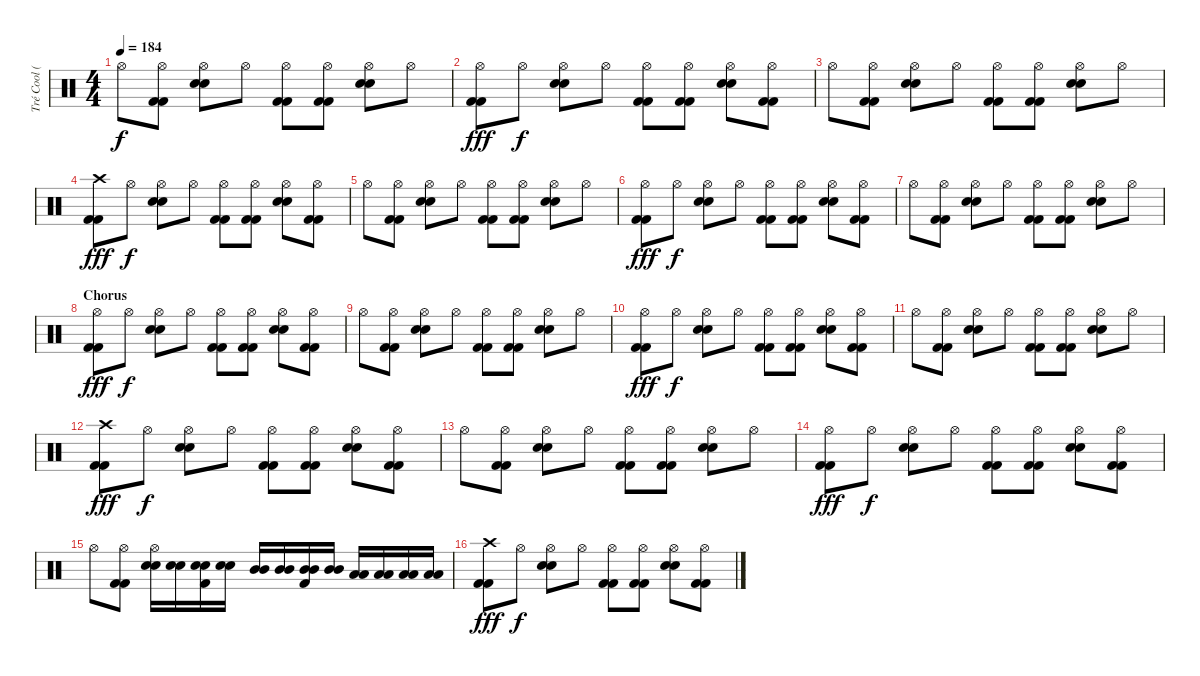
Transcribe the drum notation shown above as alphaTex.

\track ("Tré Cool (Drums)" "Tré Cool (") {instrument percussion}
\staff {score}
\articulation defaults
\ts (4 4)
\tempo 184
\clef neutral
\ks c "Hi-Hat (open)".8{dy f}
("Kick (hit) 2" "Kick (hit) 2" "Hi-Hat (open)").8 ("Electric Snare (hit)" "Electric Snare (hit)" "Hi-Hat (open)").8 "Hi-Hat (open)".8 ("Kick (hit) 2" "Kick (hit) 2" "Hi-Hat (open)").8 ("Kick (hit) 2" "Kick (hit) 2" "Hi-Hat (open)").8 ("Electric Snare (hit)" "Electric Snare (hit)" "Hi-Hat (open)").8 "Hi-Hat (open)".8 |
("Kick (hit) 2" "Kick (hit) 2" "Hi-Hat (open)").8{dy fff} "Hi-Hat (open)".8{dy f} ("Electric Snare (hit)" "Electric Snare (hit)" "Hi-Hat (open)").8 "Hi-Hat (open)".8 ("Kick (hit) 2" "Kick (hit) 2" "Hi-Hat (open)").8 ("Kick (hit) 2" "Kick (hit) 2" "Hi-Hat (open)").8 ("Electric Snare (hit)" "Electric Snare (hit)" "Hi-Hat (open)").8 ("Kick (hit) 2" "Kick (hit) 2" "Hi-Hat (open)").8 |
"Hi-Hat (open)".8 ("Kick (hit) 2" "Kick (hit) 2" "Hi-Hat (open)").8 ("Electric Snare (hit)" "Electric Snare (hit)" "Hi-Hat (open)").8 "Hi-Hat (open)".8 ("Kick (hit) 2" "Kick (hit) 2" "Hi-Hat (open)").8 ("Kick (hit) 2" "Kick (hit) 2" "Hi-Hat (open)").8 ("Electric Snare (hit)" "Electric Snare (hit)" "Hi-Hat (open)").8 "Hi-Hat (open)".8 |
("Kick (hit) 2" "Kick (hit) 2" "Crash high (hit)").8{dy fff} "Hi-Hat (open)".8{dy f} ("Electric Snare (hit)" "Electric Snare (hit)" "Hi-Hat (open)").8 "Hi-Hat (open)".8 ("Kick (hit) 2" "Kick (hit) 2" "Hi-Hat (open)").8 ("Kick (hit) 2" "Kick (hit) 2" "Hi-Hat (open)").8 ("Electric Snare (hit)" "Electric Snare (hit)" "Hi-Hat (open)").8 ("Kick (hit) 2" "Kick (hit) 2" "Hi-Hat (open)").8 |
"Hi-Hat (open)".8 ("Kick (hit) 2" "Kick (hit) 2" "Hi-Hat (open)").8 ("Electric Snare (hit)" "Electric Snare (hit)" "Hi-Hat (open)").8 "Hi-Hat (open)".8 ("Kick (hit) 2" "Kick (hit) 2" "Hi-Hat (open)").8 ("Kick (hit) 2" "Kick (hit) 2" "Hi-Hat (open)").8 ("Electric Snare (hit)" "Electric Snare (hit)" "Hi-Hat (open)").8 "Hi-Hat (open)".8 |
("Kick (hit) 2" "Kick (hit) 2" "Hi-Hat (open)").8{dy fff} "Hi-Hat (open)".8{dy f} ("Electric Snare (hit)" "Electric Snare (hit)" "Hi-Hat (open)").8 "Hi-Hat (open)".8 ("Kick (hit) 2" "Kick (hit) 2" "Hi-Hat (open)").8 ("Kick (hit) 2" "Kick (hit) 2" "Hi-Hat (open)").8 ("Electric Snare (hit)" "Electric Snare (hit)" "Hi-Hat (open)").8 ("Kick (hit) 2" "Kick (hit) 2" "Hi-Hat (open)").8 |
"Hi-Hat (open)".8 ("Kick (hit) 2" "Kick (hit) 2" "Hi-Hat (open)").8 ("Electric Snare (hit)" "Electric Snare (hit)" "Hi-Hat (open)").8 "Hi-Hat (open)".8 ("Kick (hit) 2" "Kick (hit) 2" "Hi-Hat (open)").8 ("Kick (hit) 2" "Kick (hit) 2" "Hi-Hat (open)").8 ("Electric Snare (hit)" "Electric Snare (hit)" "Hi-Hat (open)").8 "Hi-Hat (open)".8 |
\section ("" "Chorus")
("Kick (hit) 2" "Kick (hit) 2" "Hi-Hat (open)").8{dy fff} "Hi-Hat (open)".8{dy f} ("Electric Snare (hit)" "Electric Snare (hit)" "Hi-Hat (open)").8 "Hi-Hat (open)".8 ("Kick (hit) 2" "Kick (hit) 2" "Hi-Hat (open)").8 ("Kick (hit) 2" "Kick (hit) 2" "Hi-Hat (open)").8 ("Electric Snare (hit)" "Electric Snare (hit)" "Hi-Hat (open)").8 ("Kick (hit) 2" "Kick (hit) 2" "Hi-Hat (open)").8 |
"Hi-Hat (open)".8 ("Kick (hit) 2" "Kick (hit) 2" "Hi-Hat (open)").8 ("Electric Snare (hit)" "Electric Snare (hit)" "Hi-Hat (open)").8 "Hi-Hat (open)".8 ("Kick (hit) 2" "Kick (hit) 2" "Hi-Hat (open)").8 ("Kick (hit) 2" "Kick (hit) 2" "Hi-Hat (open)").8 ("Electric Snare (hit)" "Electric Snare (hit)" "Hi-Hat (open)").8 "Hi-Hat (open)".8 |
("Kick (hit) 2" "Kick (hit) 2" "Hi-Hat (open)").8{dy fff} "Hi-Hat (open)".8{dy f} ("Electric Snare (hit)" "Electric Snare (hit)" "Hi-Hat (open)").8 "Hi-Hat (open)".8 ("Kick (hit) 2" "Kick (hit) 2" "Hi-Hat (open)").8 ("Kick (hit) 2" "Kick (hit) 2" "Hi-Hat (open)").8 ("Electric Snare (hit)" "Electric Snare (hit)" "Hi-Hat (open)").8 ("Kick (hit) 2" "Kick (hit) 2" "Hi-Hat (open)").8 |
"Hi-Hat (open)".8 ("Kick (hit) 2" "Kick (hit) 2" "Hi-Hat (open)").8 ("Electric Snare (hit)" "Electric Snare (hit)" "Hi-Hat (open)").8 "Hi-Hat (open)".8 ("Kick (hit) 2" "Kick (hit) 2" "Hi-Hat (open)").8 ("Kick (hit) 2" "Kick (hit) 2" "Hi-Hat (open)").8 ("Electric Snare (hit)" "Electric Snare (hit)" "Hi-Hat (open)").8 "Hi-Hat (open)".8 |
("Kick (hit) 2" "Kick (hit) 2" "Crash high (hit)").8{dy fff} "Hi-Hat (open)".8{dy f} ("Electric Snare (hit)" "Electric Snare (hit)" "Hi-Hat (open)").8 "Hi-Hat (open)".8 ("Kick (hit) 2" "Kick (hit) 2" "Hi-Hat (open)").8 ("Kick (hit) 2" "Kick (hit) 2" "Hi-Hat (open)").8 ("Electric Snare (hit)" "Electric Snare (hit)" "Hi-Hat (open)").8 ("Kick (hit) 2" "Kick (hit) 2" "Hi-Hat (open)").8 |
"Hi-Hat (open)".8 ("Kick (hit) 2" "Kick (hit) 2" "Hi-Hat (open)").8 ("Electric Snare (hit)" "Electric Snare (hit)" "Hi-Hat (open)").8 "Hi-Hat (open)".8 ("Kick (hit) 2" "Kick (hit) 2" "Hi-Hat (open)").8 ("Kick (hit) 2" "Kick (hit) 2" "Hi-Hat (open)").8 ("Electric Snare (hit)" "Electric Snare (hit)" "Hi-Hat (open)").8 "Hi-Hat (open)".8 |
("Kick (hit) 2" "Kick (hit) 2" "Hi-Hat (open)").8{dy fff} "Hi-Hat (open)".8{dy f} ("Electric Snare (hit)" "Electric Snare (hit)" "Hi-Hat (open)").8 "Hi-Hat (open)".8 ("Kick (hit) 2" "Kick (hit) 2" "Hi-Hat (open)").8 ("Kick (hit) 2" "Kick (hit) 2" "Hi-Hat (open)").8 ("Electric Snare (hit)" "Electric Snare (hit)" "Hi-Hat (open)").8 ("Kick (hit) 2" "Kick (hit) 2" "Hi-Hat (open)").8 |
"Hi-Hat (open)".8 ("Kick (hit) 2" "Kick (hit) 2" "Hi-Hat (open)").8 ("Electric Snare (hit)" "Electric Snare (hit)" "Hi-Hat (open)").16 ("Electric Snare (hit)" "Electric Snare (hit)").16 ("Electric Snare (hit)" "Electric Snare (hit)" "Kick (hit) 2").16 ("Electric Snare (hit)" "Electric Snare (hit)").16 ("Mid Tom (hit)" "Mid Tom (hit)").16 ("Mid Tom (hit)" "Mid Tom (hit)").16 ("Mid Tom (hit)" "Mid Tom (hit)" "Kick (hit) 2").16 ("Mid Tom (hit)" "Mid Tom (hit)").16 ("Low Tom (hit)" "Low Tom (hit)").16 ("Low Tom (hit)" "Low Tom (hit)").16 ("Low Tom (hit)" "Low Tom (hit)").16 ("Low Tom (hit)" "Low Tom (hit)").16 |
("Kick (hit) 2" "Kick (hit) 2" "Crash high (hit)").8{dy fff} "Hi-Hat (open)".8{dy f} ("Electric Snare (hit)" "Electric Snare (hit)" "Hi-Hat (open)").8 "Hi-Hat (open)".8 ("Kick (hit) 2" "Kick (hit) 2" "Hi-Hat (open)").8 ("Kick (hit) 2" "Kick (hit) 2" "Hi-Hat (open)").8 ("Electric Snare (hit)" "Electric Snare (hit)" "Hi-Hat (open)").8 ("Kick (hit) 2" "Kick (hit) 2" "Hi-Hat (open)").8
